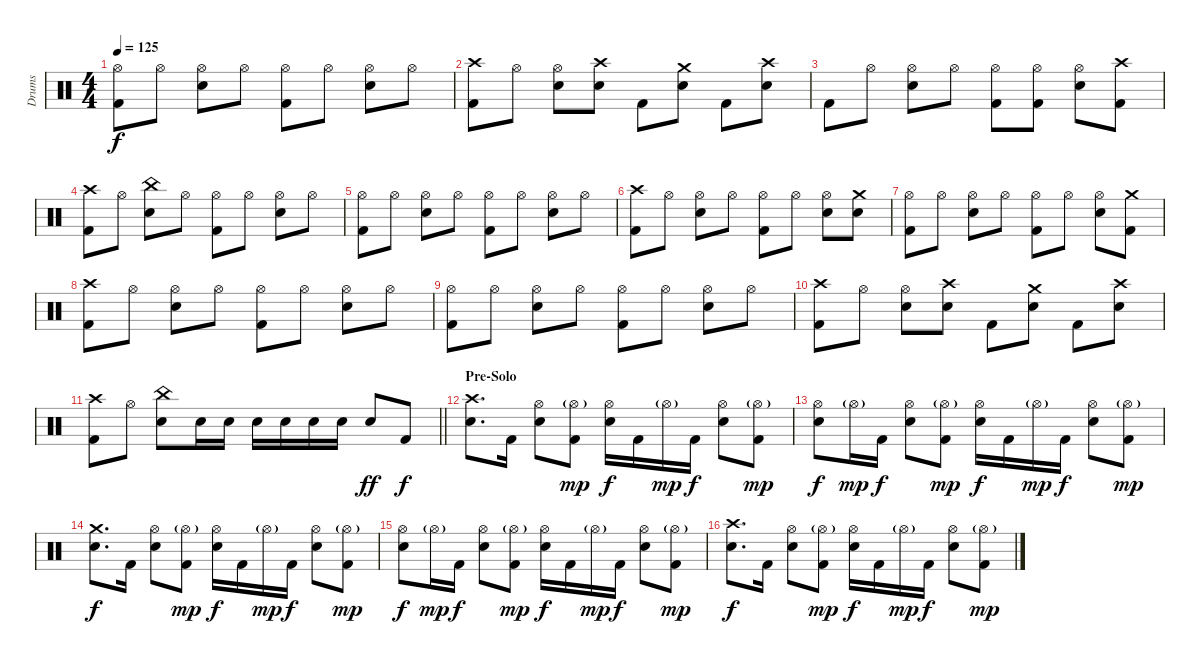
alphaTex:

\track ("Drums" "Drums") {instrument percussion}
\staff {score}
\articulation defaults
\ts (4 4)
\tempo 125
\clef neutral
\ks c
("Hi-Hat (open)" "Kick (hit) 2").8{dy f} "Hi-Hat (open)".8 ("Hi-Hat (open)" "Electric Snare (hit)").8 "Hi-Hat (open)".8 ("Hi-Hat (open)" "Kick (hit) 2").8 "Hi-Hat (open)".8 ("Hi-Hat (open)" "Electric Snare (hit)").8 "Hi-Hat (open)".8 |
("Crash high (hit)" "Kick (hit) 2").8 "Hi-Hat (open)".8 ("Hi-Hat (open)" "Electric Snare (hit)").8 ("Crash high (hit)" "Electric Snare (hit)").8 "Kick (hit) 2".8 ("Crash medium (hit)" "Electric Snare (hit)").8 "Kick (hit) 2".8 ("Crash high (hit)" "Electric Snare (hit)").8 |
"Kick (hit) 2".8 "Hi-Hat (open)".8 ("Hi-Hat (open)" "Electric Snare (hit)").8 "Hi-Hat (open)".8 ("Hi-Hat (open)" "Kick (hit) 2").8 ("Hi-Hat (open)" "Kick (hit) 2").8 ("Hi-Hat (open)" "Electric Snare (hit)").8 ("Crash high (hit)" "Kick (hit) 2").8 |
("Crash high (hit)" "Kick (hit) 2").8 "Hi-Hat (open)".8 ("China (hit)" "Electric Snare (hit)").8 "Hi-Hat (open)".8 ("Hi-Hat (open)" "Kick (hit) 2").8 "Hi-Hat (open)".8 ("Hi-Hat (open)" "Electric Snare (hit)").8 "Hi-Hat (open)".8 |
("Hi-Hat (open)" "Kick (hit) 2").8 "Hi-Hat (open)".8 ("Hi-Hat (open)" "Electric Snare (hit)").8 "Hi-Hat (open)".8 ("Hi-Hat (open)" "Kick (hit) 2").8 "Hi-Hat (open)".8 ("Hi-Hat (open)" "Electric Snare (hit)").8 "Hi-Hat (open)".8 |
("Crash high (hit)" "Kick (hit) 2").8 "Hi-Hat (open)".8 ("Hi-Hat (open)" "Electric Snare (hit)").8 "Hi-Hat (open)".8 ("Hi-Hat (open)" "Kick (hit) 2").8 "Hi-Hat (open)".8 ("Hi-Hat (open)" "Electric Snare (hit)").8 ("Crash medium (hit)" "Electric Snare (hit)").8 |
("Hi-Hat (open)" "Kick (hit) 2").8 "Hi-Hat (open)".8 ("Hi-Hat (open)" "Electric Snare (hit)").8 "Hi-Hat (open)".8 ("Hi-Hat (open)" "Kick (hit) 2").8 "Hi-Hat (open)".8 ("Hi-Hat (open)" "Electric Snare (hit)").8 ("Crash medium (hit)" "Kick (hit) 2").8 |
("Crash high (hit)" "Kick (hit) 2").8 "Hi-Hat (open)".8 ("Hi-Hat (open)" "Electric Snare (hit)").8 "Hi-Hat (open)".8 ("Hi-Hat (open)" "Kick (hit) 2").8 "Hi-Hat (open)".8 ("Hi-Hat (open)" "Electric Snare (hit)").8 "Hi-Hat (open)".8 |
("Hi-Hat (open)" "Kick (hit) 2").8 "Hi-Hat (open)".8 ("Hi-Hat (open)" "Electric Snare (hit)").8 "Hi-Hat (open)".8 ("Hi-Hat (open)" "Kick (hit) 2").8 "Hi-Hat (open)".8 ("Hi-Hat (open)" "Electric Snare (hit)").8 "Hi-Hat (open)".8 |
("Crash high (hit)" "Kick (hit) 2").8 "Hi-Hat (open)".8 ("Hi-Hat (open)" "Electric Snare (hit)").8 ("Crash high (hit)" "Electric Snare (hit)").8 "Kick (hit) 2".8 ("Crash medium (hit)" "Electric Snare (hit)").8 "Kick (hit) 2".8 ("Crash high (hit)" "Electric Snare (hit)").8 |
\barLineRight lightlight
("Crash high (hit)" "Kick (hit) 2").8 "Hi-Hat (open)".8 ("China (hit)" "Electric Snare (hit)").8 "Electric Snare (hit)".16 "Electric Snare (hit)".16 "Electric Snare (hit)".16 "Electric Snare (hit)".16 "Electric Snare (hit)".16 "Electric Snare (hit)".16 "Electric Snare (hit)".8{dy ff} "Kick (hit) 2".8{dy f} |
\section ("" "Pre-Solo")
("Crash high (hit)" "Electric Snare (hit)").8{d} "Kick (hit) 2".16 ("Hi-Hat (open)" "Electric Snare (hit)").8 ("Hi-Hat (open)"{g} "Kick (hit) 2").8{dy mp} ("Hi-Hat (open)" "Electric Snare (hit)").16{dy f} "Kick (hit) 2".16 "Hi-Hat (open)"{g}.16{dy mp} "Kick (hit) 2".16{dy f} ("Hi-Hat (open)" "Electric Snare (hit)").8 ("Hi-Hat (open)"{g} "Kick (hit) 2").8{dy mp} |
("Hi-Hat (open)" "Electric Snare (hit)").8{dy f} "Hi-Hat (open)"{g}.16{dy mp} "Kick (hit) 2".16{dy f} ("Hi-Hat (open)" "Electric Snare (hit)").8 ("Hi-Hat (open)"{g} "Kick (hit) 2").8{dy mp} ("Hi-Hat (open)" "Electric Snare (hit)").16{dy f} "Kick (hit) 2".16 "Hi-Hat (open)"{g}.16{dy mp} "Kick (hit) 2".16{dy f} ("Hi-Hat (open)" "Electric Snare (hit)").8 ("Hi-Hat (open)"{g} "Kick (hit) 2").8{dy mp} |
("Crash medium (hit)" "Electric Snare (hit)").8{d dy f} "Kick (hit) 2".16 ("Hi-Hat (open)" "Electric Snare (hit)").8 ("Hi-Hat (open)"{g} "Kick (hit) 2").8{dy mp} ("Hi-Hat (open)" "Electric Snare (hit)").16{dy f} "Kick (hit) 2".16 "Hi-Hat (open)"{g}.16{dy mp} "Kick (hit) 2".16{dy f} ("Hi-Hat (open)" "Electric Snare (hit)").8 ("Hi-Hat (open)"{g} "Kick (hit) 2").8{dy mp} |
("Hi-Hat (open)" "Electric Snare (hit)").8{dy f} "Hi-Hat (open)"{g}.16{dy mp} "Kick (hit) 2".16{dy f} ("Hi-Hat (open)" "Electric Snare (hit)").8 ("Hi-Hat (open)"{g} "Kick (hit) 2").8{dy mp} ("Hi-Hat (open)" "Electric Snare (hit)").16{dy f} "Kick (hit) 2".16 "Hi-Hat (open)"{g}.16{dy mp} "Kick (hit) 2".16{dy f} ("Hi-Hat (open)" "Electric Snare (hit)").8 ("Hi-Hat (open)"{g} "Kick (hit) 2").8{dy mp} |
("Crash high (hit)" "Electric Snare (hit)").8{d dy f} "Kick (hit) 2".16 ("Hi-Hat (open)" "Electric Snare (hit)").8 ("Hi-Hat (open)"{g} "Kick (hit) 2").8{dy mp} ("Hi-Hat (open)" "Electric Snare (hit)").16{dy f} "Kick (hit) 2".16 "Hi-Hat (open)"{g}.16{dy mp} "Kick (hit) 2".16{dy f} ("Hi-Hat (open)" "Electric Snare (hit)").8 ("Hi-Hat (open)"{g} "Kick (hit) 2").8{dy mp}
